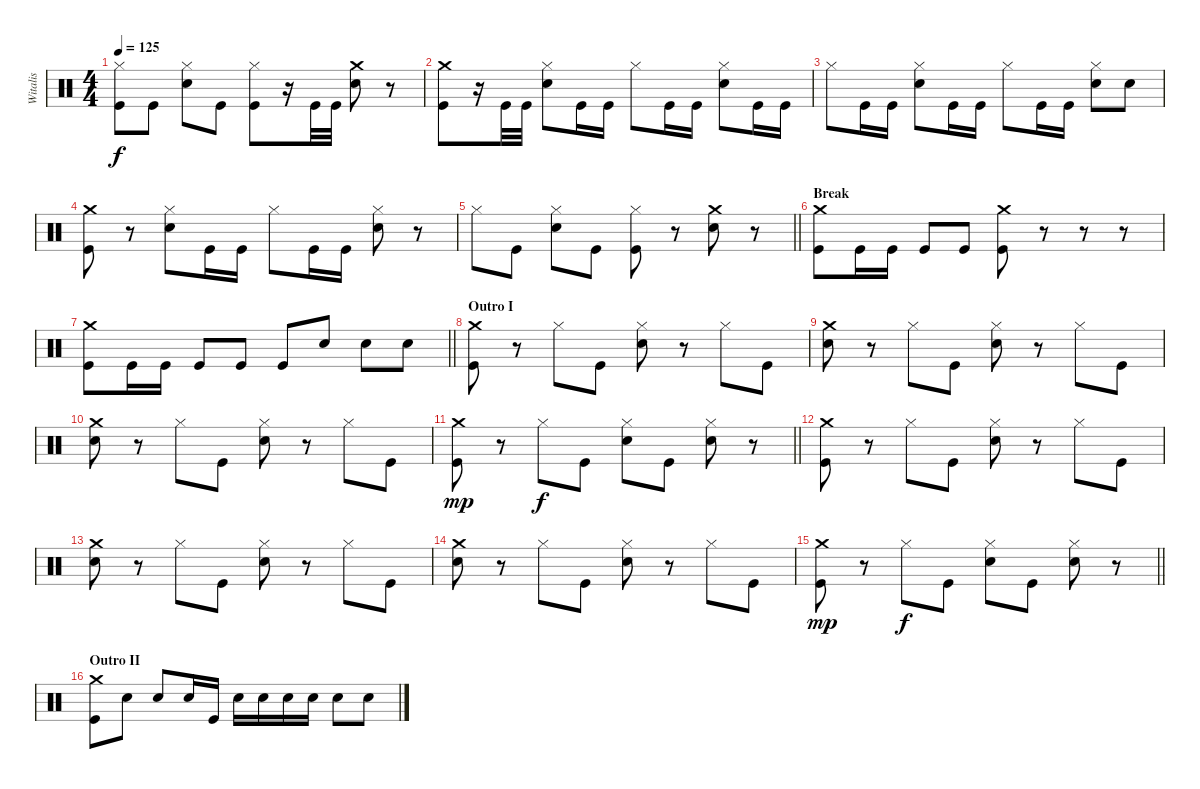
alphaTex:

\track ("Witalis" "Witalis") {instrument percussion}
\staff {score}
\articulation defaults
\ts (4 4)
\tempo 125
\clef neutral
\ks c
("Hi-Hat (closed)" "Kick (hit)").8{dy f} "Kick (hit)".8 ("Hi-Hat (closed)" "Snare (hit) 2").8 "Kick (hit)".8 ("Hi-Hat (closed)" "Kick (hit)").8 r.16 "Kick (hit)".32 "Kick (hit)".32 ("Snare (hit) 2" "Crash medium (hit)").8 r.8 |
("Kick (hit)" "Crash medium (hit)").8 r.16 "Kick (hit)".32 "Kick (hit)".32 ("Hi-Hat (closed)" "Snare (hit) 2").8 "Kick (hit)".16 "Kick (hit)".16 "Hi-Hat (closed)".8 "Kick (hit)".16 "Kick (hit)".16 ("Hi-Hat (closed)" "Snare (hit) 2").8 "Kick (hit)".16 "Kick (hit)".16 |
"Hi-Hat (closed)".8 "Kick (hit)".16 "Kick (hit)".16 ("Hi-Hat (closed)" "Snare (hit) 2").8 "Kick (hit)".16 "Kick (hit)".16 "Hi-Hat (closed)".8 "Kick (hit)".16 "Kick (hit)".16 ("Hi-Hat (closed)" "Snare (hit) 2").8 "Snare (hit) 2".8 |
("Kick (hit)" "Crash medium (hit)").8 r.8 ("Hi-Hat (closed)" "Snare (hit) 2").8 "Kick (hit)".16 "Kick (hit)".16 "Hi-Hat (closed)".8 "Kick (hit)".16 "Kick (hit)".16 ("Hi-Hat (closed)" "Snare (hit) 2").8 r.8 |
\barLineRight lightlight "Hi-Hat (closed)".8 "Kick (hit)".8
("Hi-Hat (closed)" "Snare (hit) 2").8 "Kick (hit)".8 ("Hi-Hat (closed)" "Kick (hit)").8 r.8 ("Snare (hit) 2" "Crash medium (hit)").8 r.8 |
\section ("" "Break")
("Kick (hit)" "Crash medium (hit)").8 "Kick (hit)".16 "Kick (hit)".16 "Kick (hit)".8 "Kick (hit)".8 ("Kick (hit)" "Crash medium (hit)").8 r.8 r.8 r.8 |
\barLineRight lightlight
("Kick (hit)" "Crash medium (hit)").8 "Kick (hit)".16 "Kick (hit)".16 "Kick (hit)".8 "Kick (hit)".8 "Kick (hit)".8 "Snare (hit) 2".8 "Snare (hit) 2".8 "Snare (hit) 2".8 |
\section ("" "Outro I")
("Kick (hit)" "Crash medium (hit)").8 r.8 "Hi-Hat (closed)".8 "Kick (hit)".8 ("Hi-Hat (closed)" "Snare (hit) 2").8 r.8 "Hi-Hat (closed)".8 "Kick (hit)".8 |
("Snare (hit) 2" "Crash medium (hit)").8 r.8 "Hi-Hat (closed)".8 "Kick (hit)".8 ("Hi-Hat (closed)" "Snare (hit) 2").8 r.8 "Hi-Hat (closed)".8 "Kick (hit)".8 |
("Snare (hit) 2" "Crash medium (hit)").8 r.8 "Hi-Hat (closed)".8 "Kick (hit)".8 ("Hi-Hat (closed)" "Snare (hit) 2").8 r.8 "Hi-Hat (closed)".8 "Kick (hit)".8 |
\barLineRight lightlight
("Kick (hit)" "Crash medium (hit)").8{dy mp} r.8 "Hi-Hat (closed)".8{dy f} "Kick (hit)".8 ("Hi-Hat (closed)" "Snare (hit) 2").8 "Kick (hit)".8 ("Hi-Hat (closed)" "Snare (hit) 2").8 r.8 |
("Kick (hit)" "Crash medium (hit)").8 r.8 "Hi-Hat (closed)".8 "Kick (hit)".8 ("Hi-Hat (closed)" "Snare (hit) 2").8 r.8 "Hi-Hat (closed)".8 "Kick (hit)".8 |
("Snare (hit) 2" "Crash medium (hit)").8 r.8 "Hi-Hat (closed)".8 "Kick (hit)".8 ("Hi-Hat (closed)" "Snare (hit) 2").8 r.8 "Hi-Hat (closed)".8 "Kick (hit)".8 |
("Snare (hit) 2" "Crash medium (hit)").8 r.8 "Hi-Hat (closed)".8 "Kick (hit)".8 ("Hi-Hat (closed)" "Snare (hit) 2").8 r.8 "Hi-Hat (closed)".8 "Kick (hit)".8 |
\barLineRight lightlight
("Kick (hit)" "Crash medium (hit)").8{dy mp} r.8 "Hi-Hat (closed)".8{dy f} "Kick (hit)".8 ("Hi-Hat (closed)" "Snare (hit) 2").8 "Kick (hit)".8 ("Hi-Hat (closed)" "Snare (hit) 2").8 r.8 |
\section ("" "Outro II")
("Kick (hit)" "Crash medium (hit)").8 "Snare (hit) 2".8 "Snare (hit) 2".8 "Snare (hit) 2".16 "Kick (hit)".16 "Snare (hit) 2".16 "Snare (hit) 2".16 "Snare (hit) 2".16 "Snare (hit) 2".16 "Snare (hit) 2".8 "Snare (hit) 2".8
